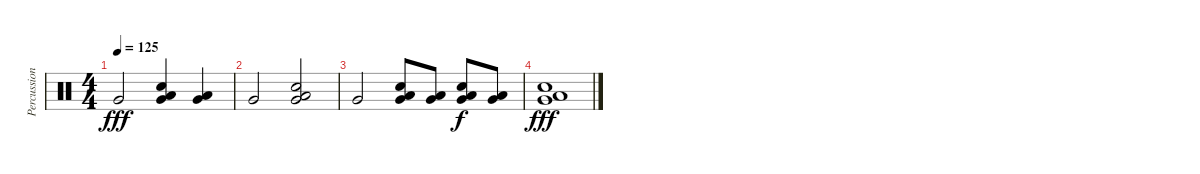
\track ("Percussion" "Percussion") {instrument percussion}
\staff {score}
\articulation defaults
\ts (4 4)
\tempo 125
\clef neutral
\ks c "Very Low Tom (hit)".2{dy fff}
("Very Low Tom (hit)" "Snare (hit) 2" "Low Floor Tom (hit)").4 ("Very Low Tom (hit)" "Low Floor Tom (hit)").4 |
"Very Low Tom (hit)".2 ("Very Low Tom (hit)" "Snare (hit) 2" "Low Floor Tom (hit)").2 |
"Very Low Tom (hit)".2 ("Very Low Tom (hit)" "Snare (hit) 2" "Low Floor Tom (hit)").8 ("Very Low Tom (hit)" "Low Floor Tom (hit)").8 ("Very Low Tom (hit)" "Snare (hit) 2" "Low Floor Tom (hit)").8{dy f} ("Very Low Tom (hit)" "Low Floor Tom (hit)").8 |
("Very Low Tom (hit)" "Snare (hit) 2" "Low Floor Tom (hit)").1{dy fff}
